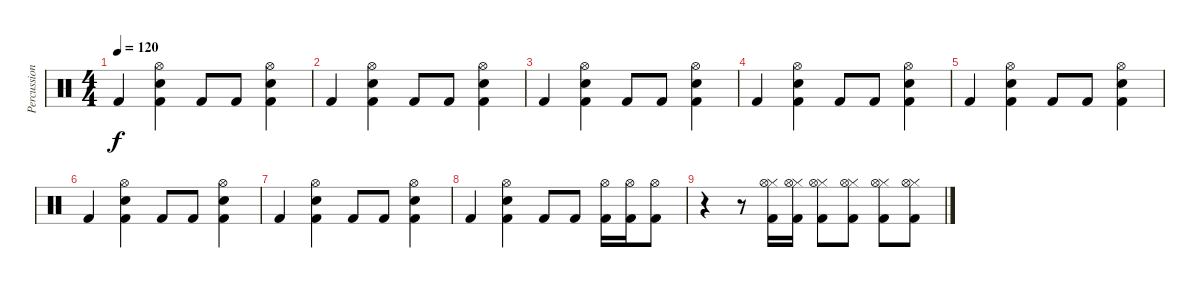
\track ("Percussion" "Percussion") {instrument percussion}
\staff {score}
\articulation defaults
\ts (4 4)
\tempo 120
\clef neutral
\ks c "Kick (hit) 2".4{dy f}
("Electric Snare (hit)" "Hi-Hat (open)" "Kick (hit) 2").4 "Kick (hit) 2".8 "Kick (hit) 2".8 ("Electric Snare (hit)" "Hi-Hat (open)" "Kick (hit) 2").4 |
"Kick (hit) 2".4 ("Electric Snare (hit)" "Hi-Hat (open)" "Kick (hit) 2").4 "Kick (hit) 2".8 "Kick (hit) 2".8 ("Electric Snare (hit)" "Hi-Hat (open)" "Kick (hit) 2").4 |
"Kick (hit) 2".4 ("Electric Snare (hit)" "Hi-Hat (open)" "Kick (hit) 2").4 "Kick (hit) 2".8 "Kick (hit) 2".8 ("Electric Snare (hit)" "Hi-Hat (open)" "Kick (hit) 2").4 |
"Kick (hit) 2".4 ("Electric Snare (hit)" "Hi-Hat (open)" "Kick (hit) 2").4 "Kick (hit) 2".8 "Kick (hit) 2".8 ("Electric Snare (hit)" "Hi-Hat (open)" "Kick (hit) 2").4 |
"Kick (hit) 2".4 ("Electric Snare (hit)" "Hi-Hat (open)" "Kick (hit) 2").4 "Kick (hit) 2".8 "Kick (hit) 2".8 ("Electric Snare (hit)" "Hi-Hat (open)" "Kick (hit) 2").4 |
"Kick (hit) 2".4 ("Electric Snare (hit)" "Hi-Hat (open)" "Kick (hit) 2").4 "Kick (hit) 2".8 "Kick (hit) 2".8 ("Electric Snare (hit)" "Hi-Hat (open)" "Kick (hit) 2").4 |
"Kick (hit) 2".4 ("Electric Snare (hit)" "Hi-Hat (open)" "Kick (hit) 2").4 "Kick (hit) 2".8 "Kick (hit) 2".8 ("Electric Snare (hit)" "Hi-Hat (open)" "Kick (hit) 2").4 |
"Kick (hit) 2".4 ("Electric Snare (hit)" "Hi-Hat (open)" "Kick (hit) 2").4 "Kick (hit) 2".8 "Kick (hit) 2".8 ("Hi-Hat (open)" "Kick (hit) 2").16 ("Hi-Hat (open)" "Kick (hit) 2").16 ("Hi-Hat (open)" "Kick (hit) 2").8 |
r.4 r.8 ("Hi-Hat (closed)" "Hi-Hat (open)" "Kick (hit) 2").16 ("Hi-Hat (closed)" "Hi-Hat (open)" "Kick (hit) 2").16 ("Hi-Hat (closed)" "Hi-Hat (open)" "Kick (hit) 2").8 ("Hi-Hat (closed)" "Hi-Hat (open)" "Kick (hit) 2").8 ("Hi-Hat (closed)" "Hi-Hat (open)" "Kick (hit) 2").8 ("Hi-Hat (closed)" "Hi-Hat (open)" "Kick (hit) 2").8
